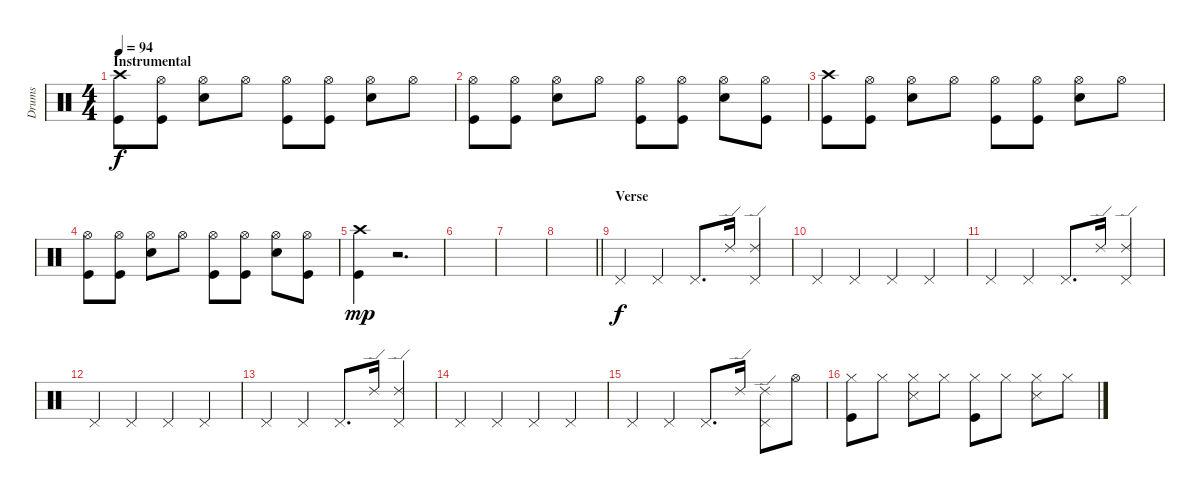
\track ("Drums" "Drums") {instrument percussion}
\staff {score}
\articulation defaults
\ts (4 4)
\section ("" "Instrumental")
\tempo 94
\clef neutral
\ks c
("Crash high (hit)" "Kick (hit)").8{dy f} ("Hi-Hat (open)" "Kick (hit)").8 ("Hi-Hat (open)" "Snare (hit) 2").8 "Hi-Hat (open)".8 ("Hi-Hat (open)" "Kick (hit)").8 ("Hi-Hat (open)" "Kick (hit)").8 ("Hi-Hat (open)" "Snare (hit) 2").8 "Hi-Hat (open)".8 |
("Hi-Hat (open)" "Kick (hit)").8 ("Hi-Hat (open)" "Kick (hit)").8 ("Hi-Hat (open)" "Snare (hit) 2").8 "Hi-Hat (open)".8 ("Hi-Hat (open)" "Kick (hit)").8 ("Hi-Hat (open)" "Kick (hit)").8 ("Hi-Hat (open)" "Snare (hit) 2").8 ("Hi-Hat (open)" "Kick (hit)").8 |
("Crash high (hit)" "Kick (hit)").8 ("Hi-Hat (open)" "Kick (hit)").8 ("Hi-Hat (open)" "Snare (hit) 2").8 "Hi-Hat (open)".8 ("Hi-Hat (open)" "Kick (hit)").8 ("Hi-Hat (open)" "Kick (hit)").8 ("Hi-Hat (open)" "Snare (hit) 2").8 "Hi-Hat (open)".8 |
("Hi-Hat (open)" "Kick (hit)").8 ("Hi-Hat (open)" "Kick (hit)").8 ("Hi-Hat (open)" "Snare (hit) 2").8 "Hi-Hat (open)".8 ("Hi-Hat (open)" "Kick (hit)").8 ("Hi-Hat (open)" "Kick (hit)").8 ("Hi-Hat (open)" "Snare (hit) 2").8 ("Hi-Hat (open)" "Kick (hit)").8 |
("Crash high (hit)" "Kick (hit)").4{dy mp} r.2{d} |
|
|
\barLineRight lightlight
|
\section ("" "Verse")
"Pedal Hi-Hat (hit)".4{dy f} "Pedal Hi-Hat (hit)".4 "Pedal Hi-Hat (hit)".8{d} "Ride (edge) 2".16 ("Ride (edge) 2" "Pedal Hi-Hat (hit)").4 |
"Pedal Hi-Hat (hit)".4 "Pedal Hi-Hat (hit)".4 "Pedal Hi-Hat (hit)".4 "Pedal Hi-Hat (hit)".4 |
"Pedal Hi-Hat (hit)".4 "Pedal Hi-Hat (hit)".4 "Pedal Hi-Hat (hit)".8{d} "Ride (edge) 2".16 ("Ride (edge) 2" "Pedal Hi-Hat (hit)").4 |
"Pedal Hi-Hat (hit)".4 "Pedal Hi-Hat (hit)".4 "Pedal Hi-Hat (hit)".4 "Pedal Hi-Hat (hit)".4 |
"Pedal Hi-Hat (hit)".4 "Pedal Hi-Hat (hit)".4 "Pedal Hi-Hat (hit)".8{d} "Ride (edge) 2".16 ("Ride (edge) 2" "Pedal Hi-Hat (hit)").4 |
"Pedal Hi-Hat (hit)".4 "Pedal Hi-Hat (hit)".4 "Pedal Hi-Hat (hit)".4 "Pedal Hi-Hat (hit)".4 |
"Pedal Hi-Hat (hit)".4 "Pedal Hi-Hat (hit)".4 "Pedal Hi-Hat (hit)".8{d} "Ride (edge) 2".16 ("Ride (edge) 2" "Pedal Hi-Hat (hit)").8 "Hi-Hat (open)".8 |
("Hi-Hat (closed)" "Kick (hit)").8 "Hi-Hat (closed)".8 ("Hi-Hat (closed)" "Snare (side stick) 3").8 "Hi-Hat (closed)".8 ("Hi-Hat (closed)" "Kick (hit)").8 "Hi-Hat (closed)".8 ("Hi-Hat (closed)" "Snare (side stick) 3").8 "Hi-Hat (closed)".8
